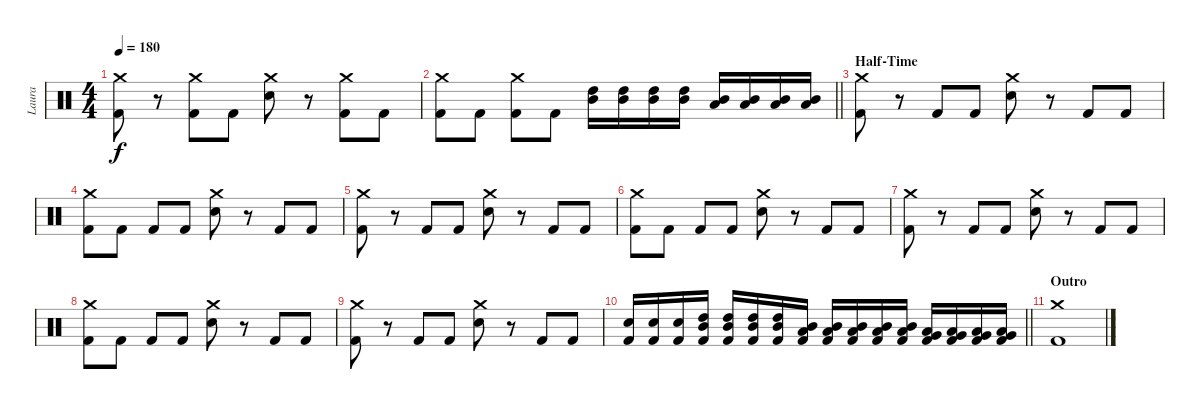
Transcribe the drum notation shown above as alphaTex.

\track ("Laura" "Laura") {instrument percussion}
\staff {score}
\articulation defaults
\ts (4 4)
\tempo 180
\clef neutral
\ks c
("Crash medium (hit)" "Kick (hit) 2").8{dy f} r.8 ("Crash medium (hit)" "Kick (hit) 2").8 "Kick (hit) 2".8 ("Crash medium (hit)" "Electric Snare (hit)").8 r.8 ("Crash medium (hit)" "Kick (hit) 2").8 "Kick (hit) 2".8 |
\barLineRight lightlight
("Crash medium (hit)" "Kick (hit) 2").8 "Kick (hit) 2".8 ("Crash medium (hit)" "Kick (hit) 2").8 "Kick (hit) 2".8 ("High Tom (hit)" "Mid Tom (hit)").16 ("High Tom (hit)" "Mid Tom (hit)").16 ("High Tom (hit)" "Mid Tom (hit)").16 ("High Tom (hit)" "Mid Tom (hit)").16 ("Mid Tom (hit)" "Low Tom (hit)").16 ("Mid Tom (hit)" "Low Tom (hit)").16 ("Mid Tom (hit)" "Low Tom (hit)").16 ("Mid Tom (hit)" "Low Tom (hit)").16 |
\section ("" "Half-Time")
("Crash medium (hit)" "Kick (hit) 2").8 r.8 "Kick (hit) 2".8 "Kick (hit) 2".8 ("Crash medium (hit)" "Electric Snare (hit)").8 r.8 "Kick (hit) 2".8 "Kick (hit) 2".8 |
("Crash medium (hit)" "Kick (hit) 2").8 "Kick (hit) 2".8 "Kick (hit) 2".8 "Kick (hit) 2".8 ("Crash medium (hit)" "Electric Snare (hit)").8 r.8 "Kick (hit) 2".8 "Kick (hit) 2".8 |
("Crash medium (hit)" "Kick (hit) 2").8 r.8 "Kick (hit) 2".8 "Kick (hit) 2".8 ("Crash medium (hit)" "Electric Snare (hit)").8 r.8 "Kick (hit) 2".8 "Kick (hit) 2".8 |
("Crash medium (hit)" "Kick (hit) 2").8 "Kick (hit) 2".8 "Kick (hit) 2".8 "Kick (hit) 2".8 ("Crash medium (hit)" "Electric Snare (hit)").8 r.8 "Kick (hit) 2".8 "Kick (hit) 2".8 |
("Crash medium (hit)" "Kick (hit) 2").8 r.8 "Kick (hit) 2".8 "Kick (hit) 2".8 ("Crash medium (hit)" "Electric Snare (hit)").8 r.8 "Kick (hit) 2".8 "Kick (hit) 2".8 |
("Crash medium (hit)" "Kick (hit) 2").8 "Kick (hit) 2".8 "Kick (hit) 2".8 "Kick (hit) 2".8 ("Crash medium (hit)" "Electric Snare (hit)").8 r.8 "Kick (hit) 2".8 "Kick (hit) 2".8 |
("Crash medium (hit)" "Kick (hit) 2").8 r.8 "Kick (hit) 2".8 "Kick (hit) 2".8 ("Crash medium (hit)" "Electric Snare (hit)").8 r.8 "Kick (hit) 2".8 "Kick (hit) 2".8 |
\barLineRight lightlight
("Electric Snare (hit)" "Kick (hit) 2").16 ("Electric Snare (hit)" "Kick (hit) 2").16 ("Electric Snare (hit)" "Kick (hit) 2").16 ("High Tom (hit)" "Mid Tom (hit)" "Kick (hit) 2").16 ("High Tom (hit)" "Mid Tom (hit)" "Kick (hit) 2").16 ("High Tom (hit)" "Mid Tom (hit)" "Kick (hit) 2").16 ("High Tom (hit)" "Mid Tom (hit)" "Kick (hit) 2").16 ("Mid Tom (hit)" "Low Tom (hit)" "Kick (hit) 2").16 ("Mid Tom (hit)" "Low Tom (hit)" "Kick (hit) 2").16 ("Mid Tom (hit)" "Low Tom (hit)" "Kick (hit) 2").16 ("Mid Tom (hit)" "Low Tom (hit)" "Kick (hit) 2").16 ("Mid Tom (hit)" "Low Tom (hit)" "Kick (hit) 2").16 ("Low Floor Tom (hit)" "Very Low Tom (hit)" "Kick (hit) 2").16 ("Low Floor Tom (hit)" "Very Low Tom (hit)" "Kick (hit) 2").16 ("Low Floor Tom (hit)" "Very Low Tom (hit)" "Kick (hit) 2").16 ("Low Floor Tom (hit)" "Very Low Tom (hit)" "Kick (hit) 2").16 |
\section ("" "Outro")
("Crash medium (hit)" "Kick (hit) 2").1
